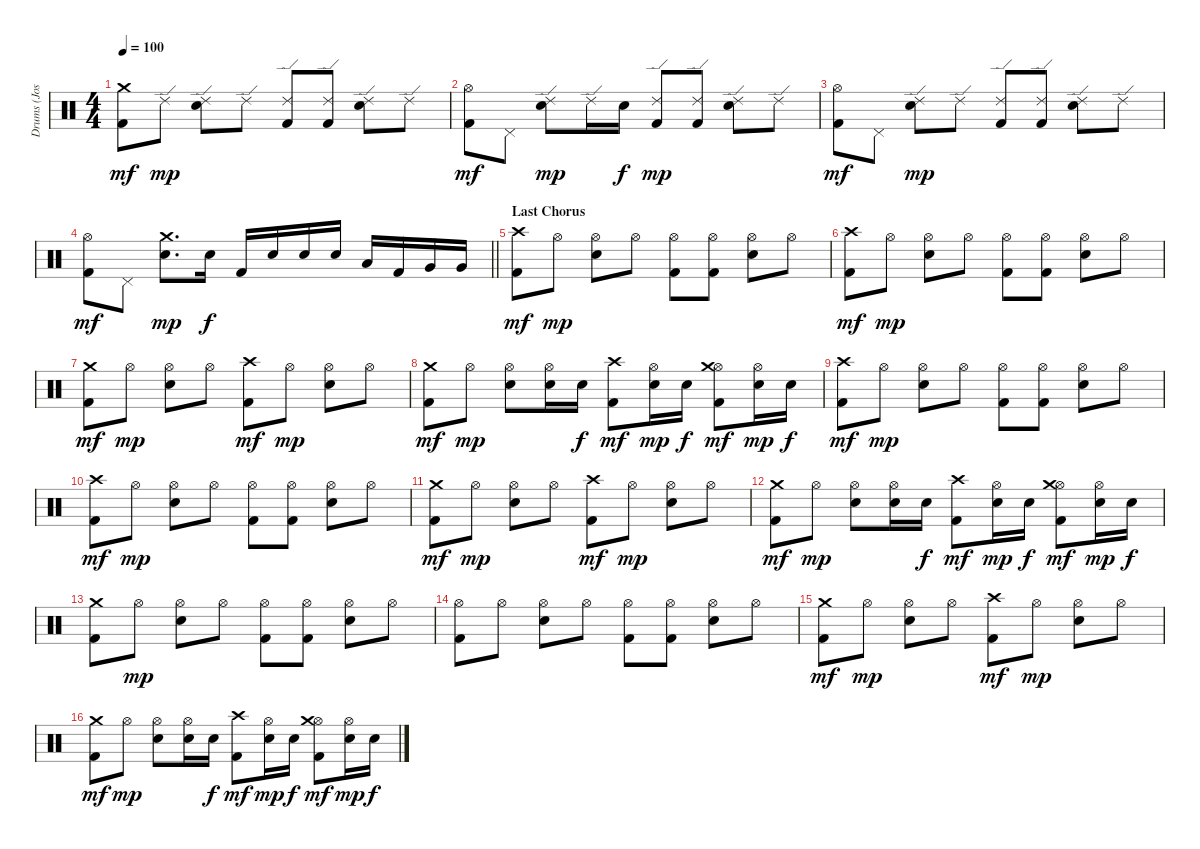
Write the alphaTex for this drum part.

\track ("Drums (Josh Freese)" "Drums (Jos") {instrument percussion}
\staff {score}
\articulation defaults
\ts (4 4)
\tempo 100
\clef neutral
\ks c
("Crash medium (hit)" "Kick (hit) 2").8{dy mf} "Ride (edge) 2".8{dy mp} ("Ride (edge) 2" "Electric Snare (hit)").8 "Ride (edge) 2".8 ("Ride (edge) 2" "Kick (hit) 2").8 ("Ride (edge) 2" "Kick (hit) 2").8 ("Ride (edge) 2" "Electric Snare (hit)").8 "Ride (edge) 2".8 |
("Hi-Hat (open)" "Kick (hit) 2").8{dy mf} "Pedal Hi-Hat (hit)".8 ("Ride (edge) 2" "Electric Snare (hit)").8{dy mp} "Ride (edge) 2".16 "Electric Snare (hit)".16{dy f} ("Ride (edge) 2" "Kick (hit) 2").8{dy mp} ("Ride (edge) 2" "Kick (hit) 2").8 ("Ride (edge) 2" "Electric Snare (hit)").8 "Ride (edge) 2".8 |
("Hi-Hat (open)" "Kick (hit) 2").8{dy mf} "Pedal Hi-Hat (hit)".8 ("Ride (edge) 2" "Electric Snare (hit)").8{dy mp} "Ride (edge) 2".8 ("Ride (edge) 2" "Kick (hit) 2").8 ("Ride (edge) 2" "Kick (hit) 2").8 ("Ride (edge) 2" "Electric Snare (hit)").8 "Ride (edge) 2".8 |
\barLineRight lightlight
("Hi-Hat (open)" "Kick (hit) 2").8{dy mf} "Pedal Hi-Hat (hit)".8 ("Crash medium (hit)" "Electric Snare (hit)").8{d dy mp} "Electric Snare (hit)".16{dy f} "Kick (hit) 2".16 "Electric Snare (hit)".16 "Electric Snare (hit)".16 "Electric Snare (hit)".16 "Low Tom (hit)".16 "Kick (hit) 2".16 "Very Low Tom (hit)".16 "Very Low Tom (hit)".16 |
\section ("" "Last Chorus")
("Crash high (hit)" "Kick (hit) 2").8{dy mf} "Hi-Hat (open)".8{dy mp} ("Hi-Hat (open)" "Electric Snare (hit)").8 "Hi-Hat (open)".8 ("Hi-Hat (open)" "Kick (hit) 2").8 ("Hi-Hat (open)" "Kick (hit) 2").8 ("Hi-Hat (open)" "Electric Snare (hit)").8 "Hi-Hat (open)".8 |
("Crash high (hit)" "Kick (hit) 2").8{dy mf} "Hi-Hat (open)".8{dy mp} ("Hi-Hat (open)" "Electric Snare (hit)").8 "Hi-Hat (open)".8 ("Hi-Hat (open)" "Kick (hit) 2").8 ("Hi-Hat (open)" "Kick (hit) 2").8 ("Hi-Hat (open)" "Electric Snare (hit)").8 "Hi-Hat (open)".8 |
("Crash medium (hit)" "Kick (hit) 2").8{dy mf} "Hi-Hat (open)".8{dy mp} ("Hi-Hat (open)" "Electric Snare (hit)").8 "Hi-Hat (open)".8 ("Crash high (hit)" "Kick (hit) 2").8{dy mf} "Hi-Hat (open)".8{dy mp} ("Hi-Hat (open)" "Electric Snare (hit)").8 "Hi-Hat (open)".8 |
("Crash medium (hit)" "Kick (hit) 2").8{dy mf} "Hi-Hat (open)".8{dy mp} ("Hi-Hat (open)" "Electric Snare (hit)").8 ("Hi-Hat (open)" "Electric Snare (hit)").16 "Electric Snare (hit)".16{dy f} ("Crash high (hit)" "Kick (hit) 2").8{dy mf} ("Hi-Hat (open)" "Electric Snare (hit)").16{dy mp} "Electric Snare (hit)".16{dy f} ("Hi-Hat (open)" "Crash medium (hit)" "Kick (hit) 2").8{dy mf} ("Hi-Hat (open)" "Electric Snare (hit)").16{dy mp} "Electric Snare (hit)".16{dy f} |
("Crash high (hit)" "Kick (hit) 2").8{dy mf} "Hi-Hat (open)".8{dy mp} ("Hi-Hat (open)" "Electric Snare (hit)").8 "Hi-Hat (open)".8 ("Hi-Hat (open)" "Kick (hit) 2").8 ("Hi-Hat (open)" "Kick (hit) 2").8 ("Hi-Hat (open)" "Electric Snare (hit)").8 "Hi-Hat (open)".8 |
("Crash high (hit)" "Kick (hit) 2").8{dy mf} "Hi-Hat (open)".8{dy mp} ("Hi-Hat (open)" "Electric Snare (hit)").8 "Hi-Hat (open)".8 ("Hi-Hat (open)" "Kick (hit) 2").8 ("Hi-Hat (open)" "Kick (hit) 2").8 ("Hi-Hat (open)" "Electric Snare (hit)").8 "Hi-Hat (open)".8 |
("Crash medium (hit)" "Kick (hit) 2").8{dy mf} "Hi-Hat (open)".8{dy mp} ("Hi-Hat (open)" "Electric Snare (hit)").8 "Hi-Hat (open)".8 ("Crash high (hit)" "Kick (hit) 2").8{dy mf} "Hi-Hat (open)".8{dy mp} ("Hi-Hat (open)" "Electric Snare (hit)").8 "Hi-Hat (open)".8 |
("Crash medium (hit)" "Kick (hit) 2").8{dy mf} "Hi-Hat (open)".8{dy mp} ("Hi-Hat (open)" "Electric Snare (hit)").8 ("Hi-Hat (open)" "Electric Snare (hit)").16 "Electric Snare (hit)".16{dy f} ("Crash high (hit)" "Kick (hit) 2").8{dy mf} ("Hi-Hat (open)" "Electric Snare (hit)").16{dy mp} "Electric Snare (hit)".16{dy f} ("Hi-Hat (open)" "Crash medium (hit)" "Kick (hit) 2").8{dy mf} ("Hi-Hat (open)" "Electric Snare (hit)").16{dy mp} "Electric Snare (hit)".16{dy f} |
("Crash medium (hit)" "Kick (hit) 2").8 "Hi-Hat (open)".8{dy mp} ("Hi-Hat (open)" "Electric Snare (hit)").8 "Hi-Hat (open)".8 ("Hi-Hat (open)" "Kick (hit) 2").8 ("Hi-Hat (open)" "Kick (hit) 2").8 ("Hi-Hat (open)" "Electric Snare (hit)").8 "Hi-Hat (open)".8 |
("Hi-Hat (open)" "Kick (hit) 2").8 "Hi-Hat (open)".8 ("Hi-Hat (open)" "Electric Snare (hit)").8 "Hi-Hat (open)".8 ("Hi-Hat (open)" "Kick (hit) 2").8 ("Hi-Hat (open)" "Kick (hit) 2").8 ("Hi-Hat (open)" "Electric Snare (hit)").8 "Hi-Hat (open)".8 |
("Crash medium (hit)" "Kick (hit) 2").8{dy mf} "Hi-Hat (open)".8{dy mp} ("Hi-Hat (open)" "Electric Snare (hit)").8 "Hi-Hat (open)".8 ("Crash high (hit)" "Kick (hit) 2").8{dy mf} "Hi-Hat (open)".8{dy mp} ("Hi-Hat (open)" "Electric Snare (hit)").8 "Hi-Hat (open)".8 |
("Crash medium (hit)" "Kick (hit) 2").8{dy mf} "Hi-Hat (open)".8{dy mp} ("Hi-Hat (open)" "Electric Snare (hit)").8 ("Hi-Hat (open)" "Electric Snare (hit)").16 "Electric Snare (hit)".16{dy f} ("Crash high (hit)" "Kick (hit) 2").8{dy mf} ("Hi-Hat (open)" "Electric Snare (hit)").16{dy mp} "Electric Snare (hit)".16{dy f} ("Hi-Hat (open)" "Crash medium (hit)" "Kick (hit) 2").8{dy mf} ("Hi-Hat (open)" "Electric Snare (hit)").16{dy mp} "Electric Snare (hit)".16{dy f}
